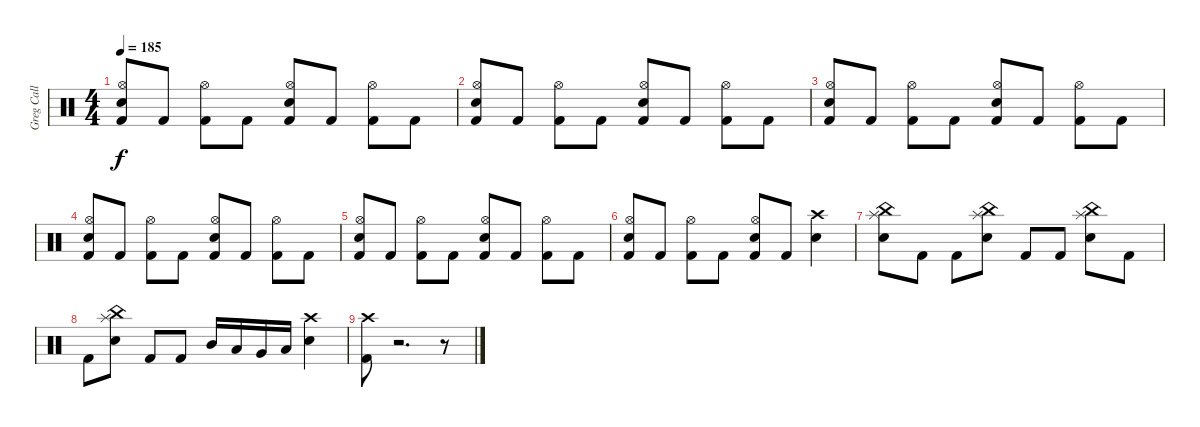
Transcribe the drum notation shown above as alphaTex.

\track ("Greg Call (Drums)" "Greg Call ") {instrument percussion}
\staff {score}
\articulation defaults
\ts (4 4)
\tempo 185
\clef neutral
\ks c
("Snare (hit) 2" "Hi-Hat (open)" "Kick (hit) 2").8{dy f} "Kick (hit) 2".8 ("Hi-Hat (open)" "Kick (hit) 2").8 "Kick (hit) 2".8 ("Snare (hit) 2" "Hi-Hat (open)" "Kick (hit) 2").8 "Kick (hit) 2".8 ("Hi-Hat (open)" "Kick (hit) 2").8 "Kick (hit) 2".8 |
("Snare (hit) 2" "Hi-Hat (open)" "Kick (hit) 2").8 "Kick (hit) 2".8 ("Hi-Hat (open)" "Kick (hit) 2").8 "Kick (hit) 2".8 ("Snare (hit) 2" "Hi-Hat (open)" "Kick (hit) 2").8 "Kick (hit) 2".8 ("Hi-Hat (open)" "Kick (hit) 2").8 "Kick (hit) 2".8 |
("Snare (hit) 2" "Hi-Hat (open)" "Kick (hit) 2").8 "Kick (hit) 2".8 ("Hi-Hat (open)" "Kick (hit) 2").8 "Kick (hit) 2".8 ("Snare (hit) 2" "Hi-Hat (open)" "Kick (hit) 2").8 "Kick (hit) 2".8 ("Hi-Hat (open)" "Kick (hit) 2").8 "Kick (hit) 2".8 |
("Snare (hit) 2" "Hi-Hat (open)" "Kick (hit) 2").8 "Kick (hit) 2".8 ("Hi-Hat (open)" "Kick (hit) 2").8 "Kick (hit) 2".8 ("Snare (hit) 2" "Hi-Hat (open)" "Kick (hit) 2").8 "Kick (hit) 2".8 ("Hi-Hat (open)" "Kick (hit) 2").8 "Kick (hit) 2".8 |
("Snare (hit) 2" "Hi-Hat (open)" "Kick (hit) 2").8 "Kick (hit) 2".8 ("Hi-Hat (open)" "Kick (hit) 2").8 "Kick (hit) 2".8 ("Snare (hit) 2" "Hi-Hat (open)" "Kick (hit) 2").8 "Kick (hit) 2".8 ("Hi-Hat (open)" "Kick (hit) 2").8 "Kick (hit) 2".8 |
("Snare (hit) 2" "Hi-Hat (open)" "Kick (hit) 2").8 "Kick (hit) 2".8 ("Hi-Hat (open)" "Kick (hit) 2").8 "Kick (hit) 2".8 ("Snare (hit) 2" "Hi-Hat (open)" "Kick (hit) 2").8 "Kick (hit) 2".8 ("Crash high (hit)" "Snare (hit) 2").4 |
("Splash (hit)" "China (hit)" "Snare (hit) 2").8 "Kick (hit) 2".8 "Kick (hit) 2".8 ("Splash (hit)" "China (hit)" "Snare (hit) 2").8 "Kick (hit) 2".8 "Kick (hit) 2".8 ("Splash (hit)" "China (hit)" "Snare (hit) 2").8 "Kick (hit) 2".8 |
"Kick (hit) 2".8 ("Splash (hit)" "China (hit)" "Snare (hit) 2").8 "Kick (hit) 2".8 "Kick (hit) 2".8 "Mid Tom (hit)".16 "Low Tom (hit)".16 "Very Low Tom (hit)".16 "Low Floor Tom (hit)".16 ("Crash high (hit)" "Snare (hit) 2").4 |
("Crash high (hit)" "Kick (hit) 2").8 r.2{d} r.8
